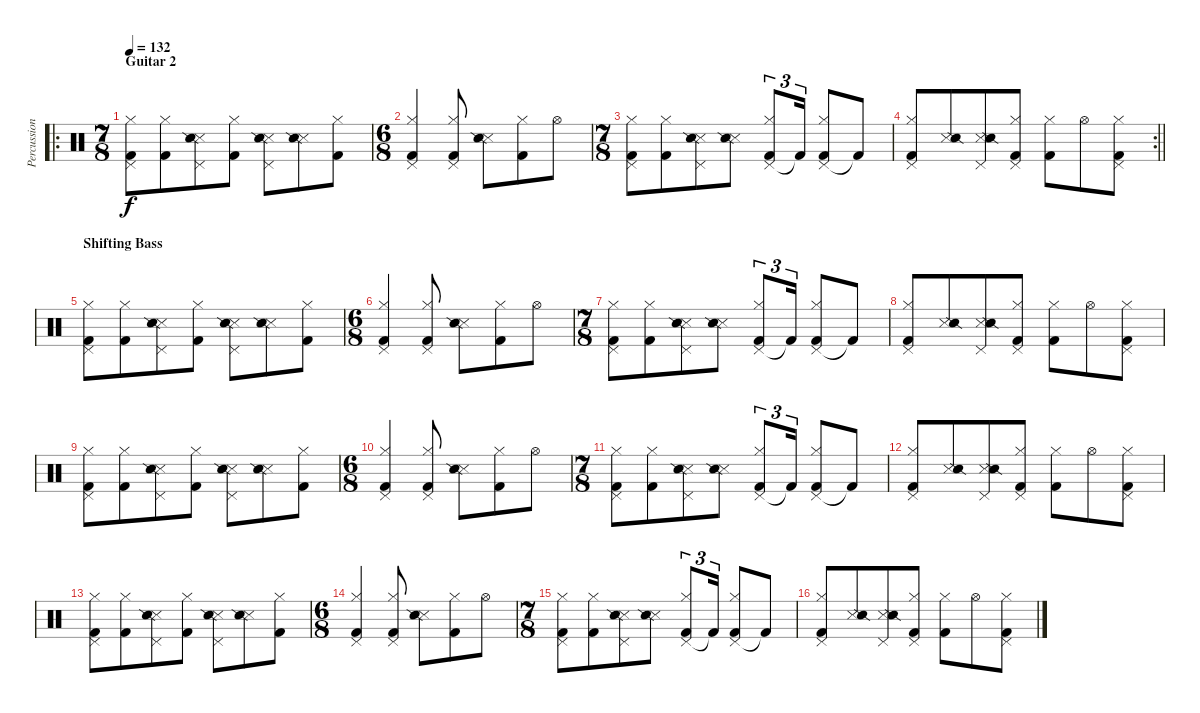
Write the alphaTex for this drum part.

\track ("Percussion" "Percussion") {instrument percussion}
\staff {score}
\articulation defaults
\ro
\ts (7 8)
\section ("" "Guitar 2")
\tempo 132
\clef neutral
\ks c
("Pedal Hi-Hat (hit)" "Hi-Hat (closed)" "Kick (hit) 2").8{dy f} ("Hi-Hat (closed)" "Kick (hit) 2").8 ("Pedal Hi-Hat (hit)" "Metronome (hit)" "Snare (side stick) 2").8 ("Hi-Hat (closed)" "Kick (hit) 2").8 ("Pedal Hi-Hat (hit)" "Metronome (hit)" "Snare (side stick) 2").8 ("Metronome (hit)" "Snare (side stick) 2").8 ("Hi-Hat (closed)" "Kick (hit) 2").8 |
\ts (6 8)
("Pedal Hi-Hat (hit)" "Hi-Hat (closed)" "Kick (hit) 2").4 ("Pedal Hi-Hat (hit)" "Hi-Hat (closed)" "Kick (hit) 2").8 ("Metronome (hit)" "Snare (side stick) 2").8 ("Hi-Hat (closed)" "Kick (hit) 2").8 "Hi-Hat (open)".8 |
\ts (7 8)
("Pedal Hi-Hat (hit)" "Hi-Hat (closed)" "Kick (hit) 2").8 ("Hi-Hat (closed)" "Kick (hit) 2").8 ("Pedal Hi-Hat (hit)" "Metronome (hit)" "Snare (side stick) 2").8 ("Metronome (hit)" "Snare (side stick) 2").8 ("Pedal Hi-Hat (hit)" "Hi-Hat (closed)" "Kick (hit) 2").8{tu (3 2)} "Kick (hit) 2"{t}.16{tu (3 2)} ("Pedal Hi-Hat (hit)" "Hi-Hat (closed)" "Kick (hit) 2").8 "Kick (hit) 2"{t}.8 |
\rc 2
\barLineRight lightlight
("Pedal Hi-Hat (hit)" "Hi-Hat (closed)" "Kick (hit) 2").8 ("Metronome (hit)" "Snare (side stick) 2").8 ("Pedal Hi-Hat (hit)" "Metronome (hit)" "Snare (side stick) 2").8 ("Pedal Hi-Hat (hit)" "Hi-Hat (closed)" "Kick (hit) 2").8 ("Hi-Hat (closed)" "Kick (hit) 2").8 "Hi-Hat (open)".8 ("Pedal Hi-Hat (hit)" "Hi-Hat (closed)" "Kick (hit) 2").8 |
\section ("" "Shifting Bass")
("Pedal Hi-Hat (hit)" "Hi-Hat (closed)" "Kick (hit) 2").8 ("Hi-Hat (closed)" "Kick (hit) 2").8 ("Pedal Hi-Hat (hit)" "Metronome (hit)" "Snare (side stick) 2").8 ("Hi-Hat (closed)" "Kick (hit) 2").8 ("Pedal Hi-Hat (hit)" "Metronome (hit)" "Snare (side stick) 2").8 ("Metronome (hit)" "Snare (side stick) 2").8 ("Hi-Hat (closed)" "Kick (hit) 2").8 |
\ts (6 8)
("Pedal Hi-Hat (hit)" "Hi-Hat (closed)" "Kick (hit) 2").4 ("Pedal Hi-Hat (hit)" "Hi-Hat (closed)" "Kick (hit) 2").8 ("Metronome (hit)" "Snare (side stick) 2").8 ("Hi-Hat (closed)" "Kick (hit) 2").8 "Hi-Hat (open)".8 |
\ts (7 8)
("Pedal Hi-Hat (hit)" "Hi-Hat (closed)" "Kick (hit) 2").8 ("Hi-Hat (closed)" "Kick (hit) 2").8 ("Pedal Hi-Hat (hit)" "Metronome (hit)" "Snare (side stick) 2").8 ("Metronome (hit)" "Snare (side stick) 2").8 ("Pedal Hi-Hat (hit)" "Hi-Hat (closed)" "Kick (hit) 2").8{tu (3 2)} "Kick (hit) 2"{t}.16{tu (3 2)} ("Pedal Hi-Hat (hit)" "Hi-Hat (closed)" "Kick (hit) 2").8 "Kick (hit) 2"{t}.8 |
("Pedal Hi-Hat (hit)" "Hi-Hat (closed)" "Kick (hit) 2").8 ("Metronome (hit)" "Snare (side stick) 2").8 ("Pedal Hi-Hat (hit)" "Metronome (hit)" "Snare (side stick) 2").8 ("Pedal Hi-Hat (hit)" "Hi-Hat (closed)" "Kick (hit) 2").8 ("Hi-Hat (closed)" "Kick (hit) 2").8 "Hi-Hat (open)".8 ("Pedal Hi-Hat (hit)" "Hi-Hat (closed)" "Kick (hit) 2").8 |
("Pedal Hi-Hat (hit)" "Hi-Hat (closed)" "Kick (hit) 2").8 ("Hi-Hat (closed)" "Kick (hit) 2").8 ("Pedal Hi-Hat (hit)" "Metronome (hit)" "Snare (side stick) 2").8 ("Hi-Hat (closed)" "Kick (hit) 2").8 ("Pedal Hi-Hat (hit)" "Metronome (hit)" "Snare (side stick) 2").8 ("Metronome (hit)" "Snare (side stick) 2").8 ("Hi-Hat (closed)" "Kick (hit) 2").8 |
\ts (6 8)
("Pedal Hi-Hat (hit)" "Hi-Hat (closed)" "Kick (hit) 2").4 ("Pedal Hi-Hat (hit)" "Hi-Hat (closed)" "Kick (hit) 2").8 ("Metronome (hit)" "Snare (side stick) 2").8 ("Hi-Hat (closed)" "Kick (hit) 2").8 "Hi-Hat (open)".8 |
\ts (7 8)
("Pedal Hi-Hat (hit)" "Hi-Hat (closed)" "Kick (hit) 2").8 ("Hi-Hat (closed)" "Kick (hit) 2").8 ("Pedal Hi-Hat (hit)" "Metronome (hit)" "Snare (side stick) 2").8 ("Metronome (hit)" "Snare (side stick) 2").8 ("Pedal Hi-Hat (hit)" "Hi-Hat (closed)" "Kick (hit) 2").8{tu (3 2)} "Kick (hit) 2"{t}.16{tu (3 2)} ("Pedal Hi-Hat (hit)" "Hi-Hat (closed)" "Kick (hit) 2").8 "Kick (hit) 2"{t}.8 |
("Pedal Hi-Hat (hit)" "Hi-Hat (closed)" "Kick (hit) 2").8 ("Metronome (hit)" "Snare (side stick) 2").8 ("Pedal Hi-Hat (hit)" "Metronome (hit)" "Snare (side stick) 2").8 ("Pedal Hi-Hat (hit)" "Hi-Hat (closed)" "Kick (hit) 2").8 ("Hi-Hat (closed)" "Kick (hit) 2").8 "Hi-Hat (open)".8 ("Pedal Hi-Hat (hit)" "Hi-Hat (closed)" "Kick (hit) 2").8 |
("Pedal Hi-Hat (hit)" "Hi-Hat (closed)" "Kick (hit) 2").8 ("Hi-Hat (closed)" "Kick (hit) 2").8 ("Pedal Hi-Hat (hit)" "Metronome (hit)" "Snare (side stick) 2").8 ("Hi-Hat (closed)" "Kick (hit) 2").8 ("Pedal Hi-Hat (hit)" "Metronome (hit)" "Snare (side stick) 2").8 ("Metronome (hit)" "Snare (side stick) 2").8 ("Hi-Hat (closed)" "Kick (hit) 2").8 |
\ts (6 8)
("Pedal Hi-Hat (hit)" "Hi-Hat (closed)" "Kick (hit) 2").4 ("Pedal Hi-Hat (hit)" "Hi-Hat (closed)" "Kick (hit) 2").8 ("Metronome (hit)" "Snare (side stick) 2").8 ("Hi-Hat (closed)" "Kick (hit) 2").8 "Hi-Hat (open)".8 |
\ts (7 8)
("Pedal Hi-Hat (hit)" "Hi-Hat (closed)" "Kick (hit) 2").8 ("Hi-Hat (closed)" "Kick (hit) 2").8 ("Pedal Hi-Hat (hit)" "Metronome (hit)" "Snare (side stick) 2").8 ("Metronome (hit)" "Snare (side stick) 2").8 ("Pedal Hi-Hat (hit)" "Hi-Hat (closed)" "Kick (hit) 2").8{tu (3 2)} "Kick (hit) 2"{t}.16{tu (3 2)} ("Pedal Hi-Hat (hit)" "Hi-Hat (closed)" "Kick (hit) 2").8 "Kick (hit) 2"{t}.8 |
("Pedal Hi-Hat (hit)" "Hi-Hat (closed)" "Kick (hit) 2").8 ("Metronome (hit)" "Snare (side stick) 2").8 ("Pedal Hi-Hat (hit)" "Metronome (hit)" "Snare (side stick) 2").8 ("Pedal Hi-Hat (hit)" "Hi-Hat (closed)" "Kick (hit) 2").8 ("Hi-Hat (closed)" "Kick (hit) 2").8 "Hi-Hat (open)".8 ("Pedal Hi-Hat (hit)" "Hi-Hat (closed)" "Kick (hit) 2").8
